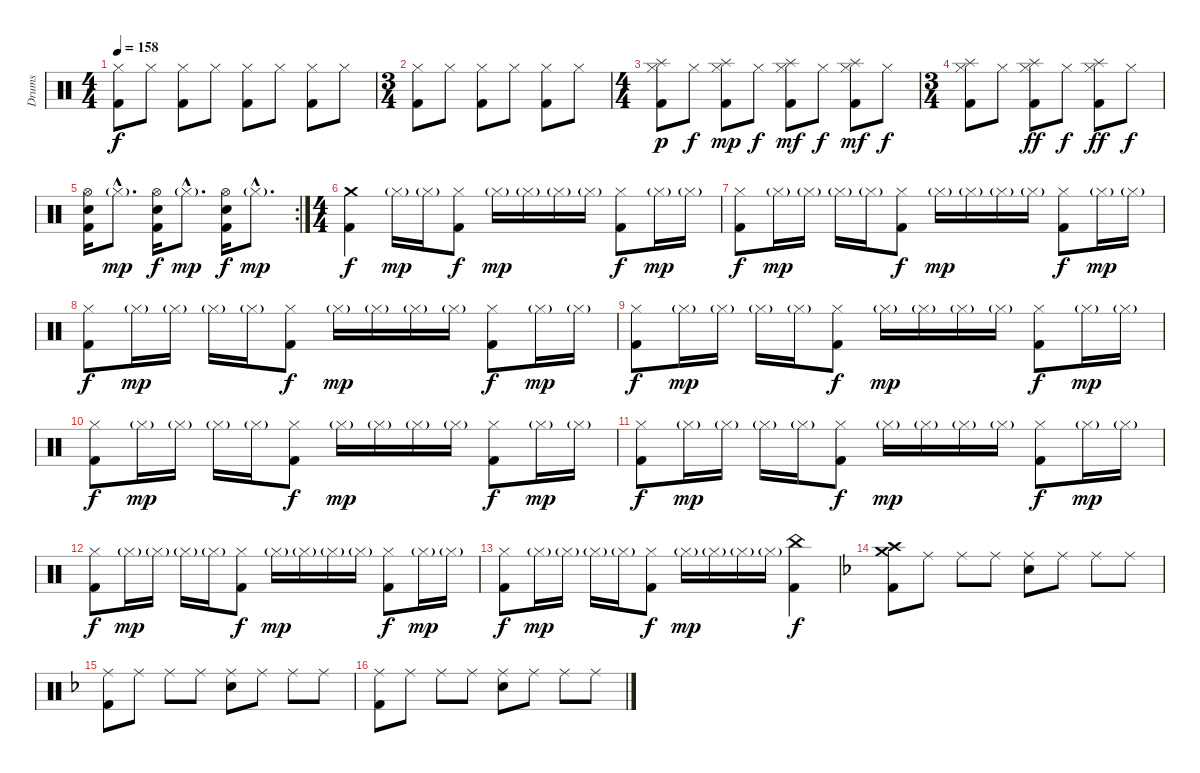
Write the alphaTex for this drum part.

\track ("Drums" "Drums") {instrument percussion}
\staff {score}
\articulation defaults
\ts (4 4)
\tempo 158
\clef neutral
\ks c
("Hi-Hat (closed)" "Kick (hit) 2").8{dy f} "Hi-Hat (closed)".8 ("Hi-Hat (closed)" "Kick (hit) 2").8 "Hi-Hat (closed)".8 ("Hi-Hat (closed)" "Kick (hit) 2").8 "Hi-Hat (closed)".8 ("Hi-Hat (closed)" "Kick (hit) 2").8 "Hi-Hat (closed)".8 |
\ts (3 4)
("Hi-Hat (closed)" "Kick (hit) 2").8 "Hi-Hat (closed)".8 ("Hi-Hat (closed)" "Kick (hit) 2").8 "Hi-Hat (closed)".8 ("Hi-Hat (closed)" "Kick (hit) 2").8 "Hi-Hat (closed)".8 |
\ts (4 4)
("Hi-Hat (closed)" "Splash (hit)" "Kick (hit) 2").8{dy p} "Hi-Hat (closed)".8{dy f} ("Hi-Hat (closed)" "Splash (hit)" "Kick (hit) 2").8{dy mp} "Hi-Hat (closed)".8{dy f} ("Hi-Hat (closed)" "Splash (hit)" "Kick (hit) 2").8{dy mf} "Hi-Hat (closed)".8{dy f} ("Hi-Hat (closed)" "Splash (hit)" "Kick (hit) 2").8{dy mf} "Hi-Hat (closed)".8{dy f} |
\ts (3 4)
("Hi-Hat (closed)" "Splash (hit)" "Kick (hit) 2").8 "Hi-Hat (closed)".8 ("Hi-Hat (closed)" "Splash (hit)" "Kick (hit) 2").8{dy ff} "Hi-Hat (closed)".8{dy f} ("Hi-Hat (closed)" "Splash (hit)" "Kick (hit) 2").8{dy ff} "Hi-Hat (closed)".8{dy f} |
\rc 2
("Hi-Hat (open)" "Snare (hit) 2" "Kick (hit) 2").16 "Hi-Hat (closed)"{g hac}.8{d dy mp} ("Hi-Hat (open)" "Snare (hit) 2" "Kick (hit) 2").16{dy f} "Hi-Hat (closed)"{g hac}.8{d dy mp} ("Hi-Hat (open)" "Snare (hit) 2" "Kick (hit) 2").16{dy f} "Hi-Hat (closed)"{g hac}.8{d dy mp} |
\ts (4 4)
("Crash medium (hit)" "Kick (hit) 2").4{dy f} "Hi-Hat (closed)"{g}.16{dy mp} "Hi-Hat (closed)"{g}.16 ("Hi-Hat (closed)" "Kick (hit) 2").8{dy f} "Hi-Hat (closed)"{g}.16{dy mp} "Hi-Hat (closed)"{g}.16 "Hi-Hat (closed)"{g}.16 "Hi-Hat (closed)"{g}.16 ("Hi-Hat (closed)" "Kick (hit) 2").8{dy f} "Hi-Hat (closed)"{g}.16{dy mp} "Hi-Hat (closed)"{g}.16 |
("Hi-Hat (closed)" "Kick (hit) 2").8{dy f} "Hi-Hat (closed)"{g}.16{dy mp} "Hi-Hat (closed)"{g}.16 "Hi-Hat (closed)"{g}.16 "Hi-Hat (closed)"{g}.16 ("Hi-Hat (closed)" "Kick (hit) 2").8{dy f} "Hi-Hat (closed)"{g}.16{dy mp} "Hi-Hat (closed)"{g}.16 "Hi-Hat (closed)"{g}.16 "Hi-Hat (closed)"{g}.16 ("Hi-Hat (closed)" "Kick (hit) 2").8{dy f} "Hi-Hat (closed)"{g}.16{dy mp} "Hi-Hat (closed)"{g}.16 |
("Hi-Hat (closed)" "Kick (hit) 2").8{dy f} "Hi-Hat (closed)"{g}.16{dy mp} "Hi-Hat (closed)"{g}.16 "Hi-Hat (closed)"{g}.16 "Hi-Hat (closed)"{g}.16 ("Hi-Hat (closed)" "Kick (hit) 2").8{dy f} "Hi-Hat (closed)"{g}.16{dy mp} "Hi-Hat (closed)"{g}.16 "Hi-Hat (closed)"{g}.16 "Hi-Hat (closed)"{g}.16 ("Hi-Hat (closed)" "Kick (hit) 2").8{dy f} "Hi-Hat (closed)"{g}.16{dy mp} "Hi-Hat (closed)"{g}.16 |
("Hi-Hat (closed)" "Kick (hit) 2").8{dy f} "Hi-Hat (closed)"{g}.16{dy mp} "Hi-Hat (closed)"{g}.16 "Hi-Hat (closed)"{g}.16 "Hi-Hat (closed)"{g}.16 ("Hi-Hat (closed)" "Kick (hit) 2").8{dy f} "Hi-Hat (closed)"{g}.16{dy mp} "Hi-Hat (closed)"{g}.16 "Hi-Hat (closed)"{g}.16 "Hi-Hat (closed)"{g}.16 ("Hi-Hat (closed)" "Kick (hit) 2").8{dy f} "Hi-Hat (closed)"{g}.16{dy mp} "Hi-Hat (closed)"{g}.16 |
("Hi-Hat (closed)" "Kick (hit) 2").8{dy f} "Hi-Hat (closed)"{g}.16{dy mp} "Hi-Hat (closed)"{g}.16 "Hi-Hat (closed)"{g}.16 "Hi-Hat (closed)"{g}.16 ("Hi-Hat (closed)" "Kick (hit) 2").8{dy f} "Hi-Hat (closed)"{g}.16{dy mp} "Hi-Hat (closed)"{g}.16 "Hi-Hat (closed)"{g}.16 "Hi-Hat (closed)"{g}.16 ("Hi-Hat (closed)" "Kick (hit) 2").8{dy f} "Hi-Hat (closed)"{g}.16{dy mp} "Hi-Hat (closed)"{g}.16 |
("Hi-Hat (closed)" "Kick (hit) 2").8{dy f} "Hi-Hat (closed)"{g}.16{dy mp} "Hi-Hat (closed)"{g}.16 "Hi-Hat (closed)"{g}.16 "Hi-Hat (closed)"{g}.16 ("Hi-Hat (closed)" "Kick (hit) 2").8{dy f} "Hi-Hat (closed)"{g}.16{dy mp} "Hi-Hat (closed)"{g}.16 "Hi-Hat (closed)"{g}.16 "Hi-Hat (closed)"{g}.16 ("Hi-Hat (closed)" "Kick (hit) 2").8{dy f} "Hi-Hat (closed)"{g}.16{dy mp} "Hi-Hat (closed)"{g}.16 |
("Hi-Hat (closed)" "Kick (hit) 2").8{dy f} "Hi-Hat (closed)"{g}.16{dy mp} "Hi-Hat (closed)"{g}.16 "Hi-Hat (closed)"{g}.16 "Hi-Hat (closed)"{g}.16 ("Hi-Hat (closed)" "Kick (hit) 2").8{dy f} "Hi-Hat (closed)"{g}.16{dy mp} "Hi-Hat (closed)"{g}.16 "Hi-Hat (closed)"{g}.16 "Hi-Hat (closed)"{g}.16 ("Hi-Hat (closed)" "Kick (hit) 2").8{dy f} "Hi-Hat (closed)"{g}.16{dy mp} "Hi-Hat (closed)"{g}.16 |
("Hi-Hat (closed)" "Kick (hit) 2").8{dy f} "Hi-Hat (closed)"{g}.16{dy mp} "Hi-Hat (closed)"{g}.16 "Hi-Hat (closed)"{g}.16 "Hi-Hat (closed)"{g}.16 ("Hi-Hat (closed)" "Kick (hit) 2").8{dy f} "Hi-Hat (closed)"{g}.16{dy mp} "Hi-Hat (closed)"{g}.16 "Hi-Hat (closed)"{g}.16 "Hi-Hat (closed)"{g}.16 ("China (hit)" "Kick (hit) 2").4{dy f} |
\ks f
("Crash medium (hit)" "Crash high (hit)" "Kick (hit) 2").8 "Ride (middle)".8 "Ride (middle)".8 "Ride (middle)".8 ("Ride (middle)" "Snare (hit) 2").8 "Ride (middle)".8 "Ride (middle)".8 "Ride (middle)".8 |
("Ride (middle)" "Kick (hit) 2").8 "Ride (middle)".8 "Ride (middle)".8 "Ride (middle)".8 ("Ride (middle)" "Snare (hit) 2").8 "Ride (middle)".8 "Ride (middle)".8 "Ride (middle)".8 |
("Ride (middle)" "Kick (hit) 2").8 "Ride (middle)".8 "Ride (middle)".8 "Ride (middle)".8 ("Ride (middle)" "Snare (hit) 2").8 "Ride (middle)".8 "Ride (middle)".8 "Ride (middle)".8
